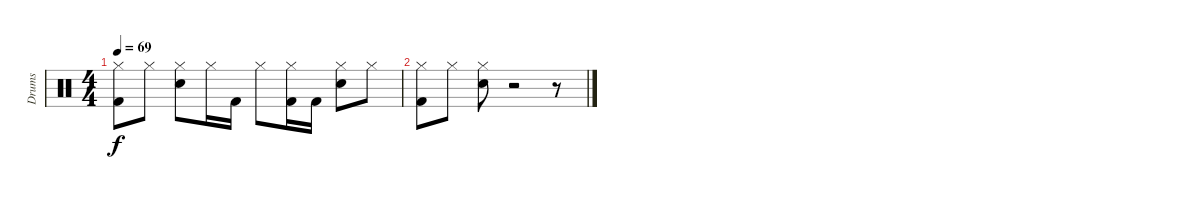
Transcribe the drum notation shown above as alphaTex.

\track ("Drums" "Drums") {instrument percussion}
\staff {score}
\articulation defaults
\ts (4 4)
\tempo 69
\clef neutral
\ks c
("Hi-Hat (closed)" "Kick (hit) 2").8{dy f} "Hi-Hat (closed)".8 ("Hi-Hat (closed)" "Snare (hit) 2").8 "Hi-Hat (closed)".16 "Kick (hit) 2".16 "Hi-Hat (closed)".8 ("Hi-Hat (closed)" "Kick (hit) 2").16 "Kick (hit) 2".16 ("Snare (hit) 2" "Hi-Hat (closed)").8 "Hi-Hat (closed)".8 |
("Hi-Hat (closed)" "Kick (hit) 2").8 "Hi-Hat (closed)".8 ("Snare (hit) 2" "Hi-Hat (closed)").8 r.2 r.8
